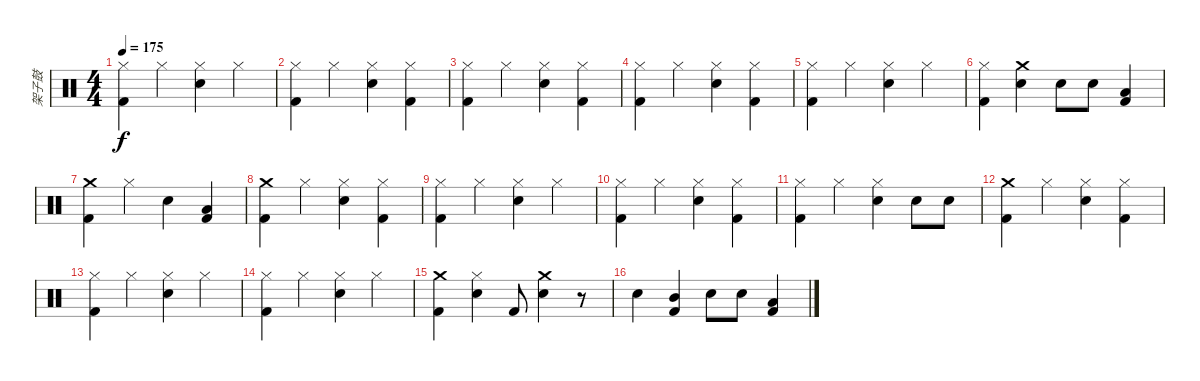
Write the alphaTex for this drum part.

\track ("架子鼓" "架子鼓") {instrument percussion}
\staff {score}
\articulation defaults
\ts (4 4)
\tempo 175
\clef neutral
\ks c
("Hi-Hat (closed)" "Kick (hit) 2").4{dy f} "Hi-Hat (closed)".4 ("Hi-Hat (closed)" "Electric Snare (hit)").4 "Hi-Hat (closed)".4 |
("Hi-Hat (closed)" "Kick (hit) 2").4 "Hi-Hat (closed)".4 ("Hi-Hat (closed)" "Electric Snare (hit)").4 ("Hi-Hat (closed)" "Kick (hit) 2").4 |
("Hi-Hat (closed)" "Kick (hit) 2").4 "Hi-Hat (closed)".4 ("Hi-Hat (closed)" "Electric Snare (hit)").4 ("Hi-Hat (closed)" "Kick (hit) 2").4 |
("Hi-Hat (closed)" "Kick (hit) 2").4 "Hi-Hat (closed)".4 ("Hi-Hat (closed)" "Electric Snare (hit)").4 ("Hi-Hat (closed)" "Kick (hit) 2").4 |
("Hi-Hat (closed)" "Kick (hit) 2").4 "Hi-Hat (closed)".4 ("Hi-Hat (closed)" "Electric Snare (hit)").4 "Hi-Hat (closed)".4 |
("Hi-Hat (closed)" "Kick (hit) 2").4 ("Crash medium (hit)" "Electric Snare (hit)").4 "Electric Snare (hit)".8 "Electric Snare (hit)".8 ("Kick (hit) 2" "Low Tom (hit)").4 |
("Crash medium (hit)" "Kick (hit) 2").4 "Hi-Hat (closed)".4 "Electric Snare (hit)".4 ("Low Tom (hit)" "Kick (hit) 2").4 |
("Crash medium (hit)" "Kick (hit) 2").4 "Hi-Hat (closed)".4 ("Hi-Hat (closed)" "Electric Snare (hit)").4 ("Hi-Hat (closed)" "Kick (hit) 2").4 |
("Hi-Hat (closed)" "Kick (hit) 2").4 "Hi-Hat (closed)".4 ("Hi-Hat (closed)" "Electric Snare (hit)").4 "Hi-Hat (closed)".4 |
("Hi-Hat (closed)" "Kick (hit) 2").4 "Hi-Hat (closed)".4 ("Hi-Hat (closed)" "Electric Snare (hit)").4 ("Hi-Hat (closed)" "Kick (hit) 2").4 |
("Hi-Hat (closed)" "Kick (hit) 2").4 "Hi-Hat (closed)".4 ("Hi-Hat (closed)" "Electric Snare (hit)").4 "Electric Snare (hit)".8 "Electric Snare (hit)".8 |
("Crash medium (hit)" "Kick (hit) 2").4 "Hi-Hat (closed)".4 ("Hi-Hat (closed)" "Electric Snare (hit)").4 ("Hi-Hat (closed)" "Kick (hit) 2").4 |
("Hi-Hat (closed)" "Kick (hit) 2").4 "Hi-Hat (closed)".4 ("Hi-Hat (closed)" "Electric Snare (hit)").4 "Hi-Hat (closed)".4 |
("Hi-Hat (closed)" "Kick (hit) 2").4 "Hi-Hat (closed)".4 ("Hi-Hat (closed)" "Electric Snare (hit)").4 "Hi-Hat (closed)".4 |
("Crash medium (hit)" "Kick (hit) 2").4 ("Hi-Hat (closed)" "Electric Snare (hit)").4 "Kick (hit) 2".8 ("Crash medium (hit)" "Electric Snare (hit)").4 r.8 |
"Electric Snare (hit)".4 ("Kick (hit) 2" "Mid Tom (hit)").4 "Electric Snare (hit)".8 "Electric Snare (hit)".8 ("Kick (hit) 2" "Low Tom (hit)").4
